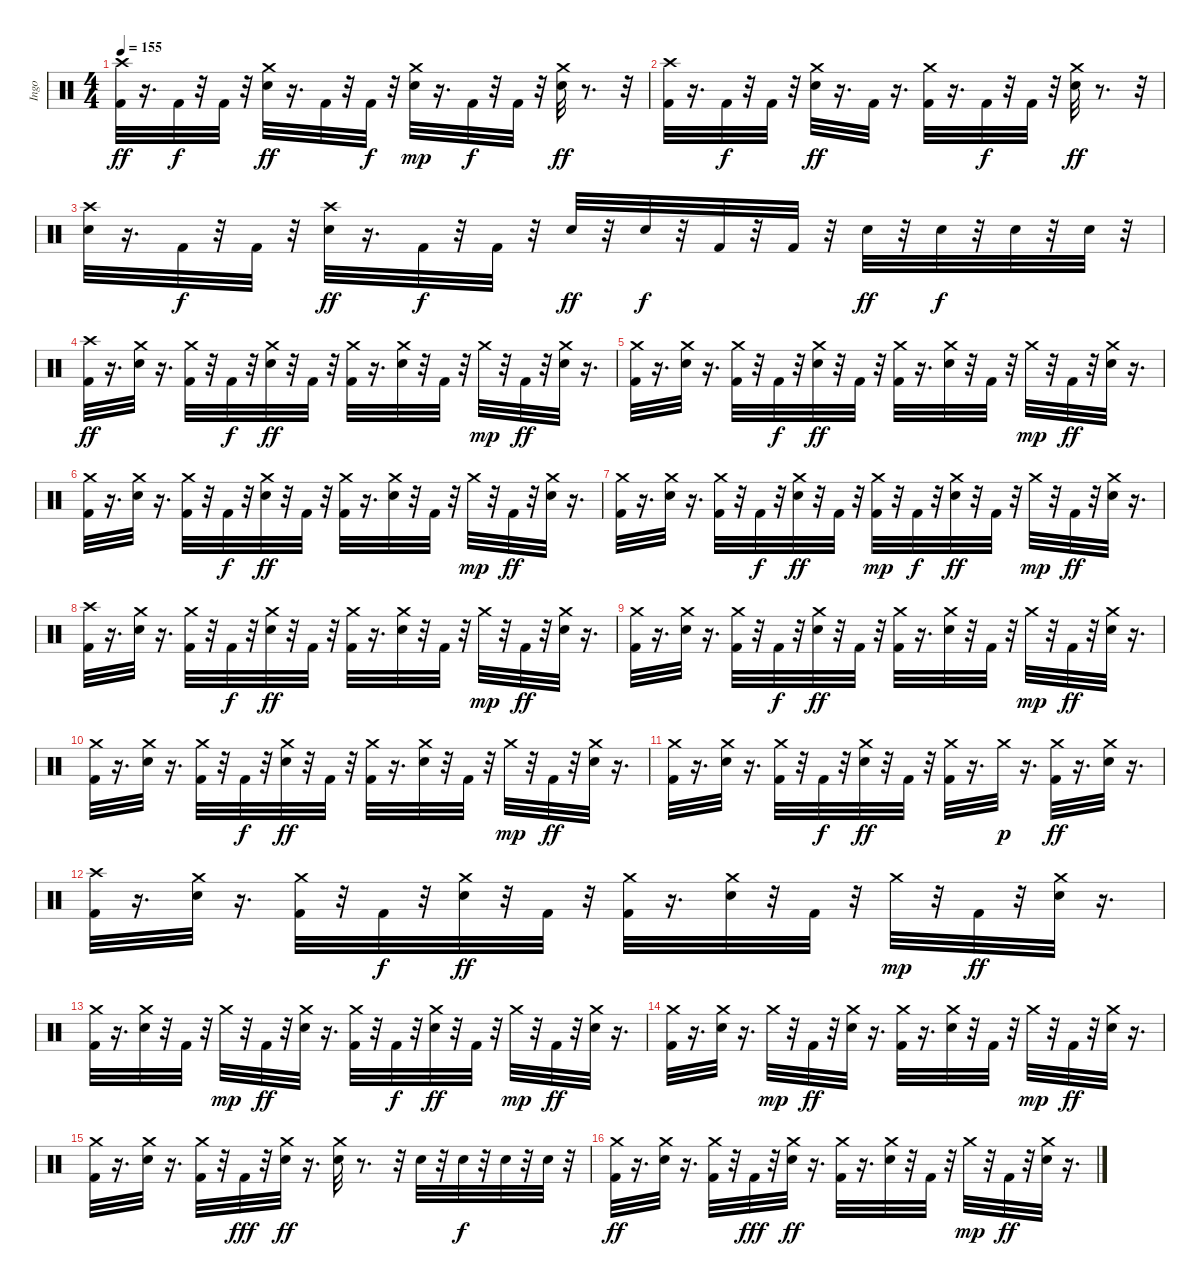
\track ("Ingo" "Ingo") {instrument percussion}
\staff {score}
\articulation defaults
\ts (4 4)
\tempo 155
\clef neutral
\ks c
("Crash high (hit)" "Kick (hit) 2").32{dy ff} r.16{d} "Kick (hit) 2".32{dy f} r.32 "Kick (hit) 2".32 r.32 ("Crash medium (hit)" "Snare (hit) 2").32{dy ff} r.16{d} "Kick (hit) 2".32 r.32 "Kick (hit) 2".32{dy f} r.32 ("Snare (hit) 2" "Crash medium (hit)").32{dy mp} r.16{d} "Kick (hit) 2".32{dy f} r.32 "Kick (hit) 2".32 r.32 ("Crash medium (hit)" "Snare (hit) 2").32{dy ff} r.8{d} r.32 |
("Crash high (hit)" "Kick (hit) 2").32 r.16{d} "Kick (hit) 2".32{dy f} r.32 "Kick (hit) 2".32 r.32 ("Crash medium (hit)" "Snare (hit) 2").32{dy ff} r.16{d} "Kick (hit) 2".32 r.16{d} ("Crash medium (hit)" "Kick (hit) 2").32 r.16{d} "Kick (hit) 2".32{dy f} r.32 "Kick (hit) 2".32 r.32 ("Crash medium (hit)" "Snare (hit) 2").32{dy ff} r.8{d} r.32 |
("Snare (hit) 2" "Crash high (hit)").32 r.16{d} "Kick (hit) 2".32{dy f} r.32 "Kick (hit) 2".32 r.32 ("Snare (hit) 2" "Crash high (hit)").32{dy ff} r.16{d} "Kick (hit) 2".32{dy f} r.32 "Kick (hit) 2".32 r.32 "Snare (hit) 2".32{dy ff} r.32 "Snare (hit) 2".32{dy f} r.32 "Kick (hit) 2".32 r.32 "Kick (hit) 2".32 r.32 "Snare (hit) 2".32{dy ff} r.32 "Snare (hit) 2".32{dy f} r.32 "Snare (hit) 2".32 r.32 "Snare (hit) 2".32 r.32 |
("Crash high (hit)" "Kick (hit) 2").32{dy ff} r.16{d} ("Crash medium (hit)" "Snare (hit) 2").32 r.16{d} ("Crash medium (hit)" "Kick (hit) 2").32 r.32 "Kick (hit) 2".32{dy f} r.32 ("Crash medium (hit)" "Snare (hit) 2").32{dy ff} r.32 "Kick (hit) 2".32 r.32 ("Crash medium (hit)" "Kick (hit) 2").32 r.16{d} ("Crash medium (hit)" "Snare (hit) 2").32 r.32 "Kick (hit) 2".32 r.32 "Crash medium (hit)".32{dy mp} r.32 "Kick (hit) 2".32{dy ff} r.32 ("Crash medium (hit)" "Snare (hit) 2").32 r.16{d} |
("Crash medium (hit)" "Kick (hit) 2").32 r.16{d} ("Crash medium (hit)" "Snare (hit) 2").32 r.16{d} ("Crash medium (hit)" "Kick (hit) 2").32 r.32 "Kick (hit) 2".32{dy f} r.32 ("Crash medium (hit)" "Snare (hit) 2").32{dy ff} r.32 "Kick (hit) 2".32 r.32 ("Crash medium (hit)" "Kick (hit) 2").32 r.16{d} ("Crash medium (hit)" "Snare (hit) 2").32 r.32 "Kick (hit) 2".32 r.32 "Crash medium (hit)".32{dy mp} r.32 "Kick (hit) 2".32{dy ff} r.32 ("Crash medium (hit)" "Snare (hit) 2").32 r.16{d} |
("Crash medium (hit)" "Kick (hit) 2").32 r.16{d} ("Crash medium (hit)" "Snare (hit) 2").32 r.16{d} ("Crash medium (hit)" "Kick (hit) 2").32 r.32 "Kick (hit) 2".32{dy f} r.32 ("Crash medium (hit)" "Snare (hit) 2").32{dy ff} r.32 "Kick (hit) 2".32 r.32 ("Crash medium (hit)" "Kick (hit) 2").32 r.16{d} ("Crash medium (hit)" "Snare (hit) 2").32 r.32 "Kick (hit) 2".32 r.32 "Crash medium (hit)".32{dy mp} r.32 "Kick (hit) 2".32{dy ff} r.32 ("Crash medium (hit)" "Snare (hit) 2").32 r.16{d} |
("Crash medium (hit)" "Kick (hit) 2").32 r.16{d} ("Crash medium (hit)" "Snare (hit) 2").32 r.16{d} ("Crash medium (hit)" "Kick (hit) 2").32 r.32 "Kick (hit) 2".32{dy f} r.32 ("Crash medium (hit)" "Snare (hit) 2").32{dy ff} r.32 "Kick (hit) 2".32 r.32 ("Kick (hit) 2" "Crash medium (hit)").32{dy mp} r.32 "Kick (hit) 2".32{dy f} r.32 ("Crash medium (hit)" "Snare (hit) 2").32{dy ff} r.32 "Kick (hit) 2".32 r.32 "Crash medium (hit)".32{dy mp} r.32 "Kick (hit) 2".32{dy ff} r.32 ("Crash medium (hit)" "Snare (hit) 2").32 r.16{d} |
("Crash high (hit)" "Kick (hit) 2").32 r.16{d} ("Crash medium (hit)" "Snare (hit) 2").32 r.16{d} ("Crash medium (hit)" "Kick (hit) 2").32 r.32 "Kick (hit) 2".32{dy f} r.32 ("Crash medium (hit)" "Snare (hit) 2").32{dy ff} r.32 "Kick (hit) 2".32 r.32 ("Crash medium (hit)" "Kick (hit) 2").32 r.16{d} ("Crash medium (hit)" "Snare (hit) 2").32 r.32 "Kick (hit) 2".32 r.32 "Crash medium (hit)".32{dy mp} r.32 "Kick (hit) 2".32{dy ff} r.32 ("Crash medium (hit)" "Snare (hit) 2").32 r.16{d} |
("Crash medium (hit)" "Kick (hit) 2").32 r.16{d} ("Crash medium (hit)" "Snare (hit) 2").32 r.16{d} ("Crash medium (hit)" "Kick (hit) 2").32 r.32 "Kick (hit) 2".32{dy f} r.32 ("Crash medium (hit)" "Snare (hit) 2").32{dy ff} r.32 "Kick (hit) 2".32 r.32 ("Crash medium (hit)" "Kick (hit) 2").32 r.16{d} ("Crash medium (hit)" "Snare (hit) 2").32 r.32 "Kick (hit) 2".32 r.32 "Crash medium (hit)".32{dy mp} r.32 "Kick (hit) 2".32{dy ff} r.32 ("Crash medium (hit)" "Snare (hit) 2").32 r.16{d} |
("Crash medium (hit)" "Kick (hit) 2").32 r.16{d} ("Crash medium (hit)" "Snare (hit) 2").32 r.16{d} ("Crash medium (hit)" "Kick (hit) 2").32 r.32 "Kick (hit) 2".32{dy f} r.32 ("Crash medium (hit)" "Snare (hit) 2").32{dy ff} r.32 "Kick (hit) 2".32 r.32 ("Crash medium (hit)" "Kick (hit) 2").32 r.16{d} ("Crash medium (hit)" "Snare (hit) 2").32 r.32 "Kick (hit) 2".32 r.32 "Crash medium (hit)".32{dy mp} r.32 "Kick (hit) 2".32{dy ff} r.32 ("Crash medium (hit)" "Snare (hit) 2").32 r.16{d} |
("Crash medium (hit)" "Kick (hit) 2").32 r.16{d} ("Crash medium (hit)" "Snare (hit) 2").32 r.16{d} ("Crash medium (hit)" "Kick (hit) 2").32 r.32 "Kick (hit) 2".32{dy f} r.32 ("Crash medium (hit)" "Snare (hit) 2").32{dy ff} r.32 "Kick (hit) 2".32 r.32 ("Crash medium (hit)" "Kick (hit) 2").32 r.16{d} "Crash medium (hit)".32{dy p} r.16{d} ("Crash medium (hit)" "Kick (hit) 2").32{dy ff} r.16{d} ("Crash medium (hit)" "Snare (hit) 2").32 r.16{d} |
("Crash high (hit)" "Kick (hit) 2").32 r.16{d} ("Crash medium (hit)" "Snare (hit) 2").32 r.16{d} ("Crash medium (hit)" "Kick (hit) 2").32 r.32 "Kick (hit) 2".32{dy f} r.32 ("Crash medium (hit)" "Snare (hit) 2").32{dy ff} r.32 "Kick (hit) 2".32 r.32 ("Crash medium (hit)" "Kick (hit) 2").32 r.16{d} ("Crash medium (hit)" "Snare (hit) 2").32 r.32 "Kick (hit) 2".32 r.32 "Crash medium (hit)".32{dy mp} r.32 "Kick (hit) 2".32{dy ff} r.32 ("Crash medium (hit)" "Snare (hit) 2").32 r.16{d} |
("Crash medium (hit)" "Kick (hit) 2").32 r.16{d} ("Crash medium (hit)" "Snare (hit) 2").32 r.32 "Kick (hit) 2".32 r.32 "Crash medium (hit)".32{dy mp} r.32 "Kick (hit) 2".32{dy ff} r.32 ("Crash medium (hit)" "Snare (hit) 2").32 r.16{d} ("Crash medium (hit)" "Kick (hit) 2").32 r.32 "Kick (hit) 2".32{dy f} r.32 ("Crash medium (hit)" "Snare (hit) 2").32{dy ff} r.32 "Kick (hit) 2".32 r.32 "Crash medium (hit)".32{dy mp} r.32 "Kick (hit) 2".32{dy ff} r.32 ("Crash medium (hit)" "Snare (hit) 2").32 r.16{d} |
("Crash medium (hit)" "Kick (hit) 2").32 r.16{d} ("Crash medium (hit)" "Snare (hit) 2").32 r.16{d} "Crash medium (hit)".32{dy mp} r.32 "Kick (hit) 2".32{dy ff} r.32 ("Crash medium (hit)" "Snare (hit) 2").32 r.16{d} ("Crash medium (hit)" "Kick (hit) 2").32 r.16{d} ("Crash medium (hit)" "Snare (hit) 2").32 r.32 "Kick (hit) 2".32 r.32 "Crash medium (hit)".32{dy mp} r.32 "Kick (hit) 2".32{dy ff} r.32 ("Crash medium (hit)" "Snare (hit) 2").32 r.16{d} |
("Crash medium (hit)" "Kick (hit) 2").32 r.16{d} ("Crash medium (hit)" "Snare (hit) 2").32 r.16{d} ("Crash medium (hit)" "Kick (hit) 2").32 r.32 "Kick (hit) 2".32{dy fff} r.32 ("Crash medium (hit)" "Snare (hit) 2").32{dy ff} r.16{d} ("Crash medium (hit)" "Snare (hit) 2").32 r.8{d} r.32 "Snare (hit) 2".32 r.32 "Snare (hit) 2".32{dy f} r.32 "Snare (hit) 2".32 r.32 "Snare (hit) 2".32 r.32 |
("Crash medium (hit)" "Kick (hit) 2").32{dy ff} r.16{d} ("Crash medium (hit)" "Snare (hit) 2").32 r.16{d} ("Crash medium (hit)" "Kick (hit) 2").32 r.32 "Kick (hit) 2".32{dy fff} r.32 ("Crash medium (hit)" "Snare (hit) 2").32{dy ff} r.16{d} ("Crash medium (hit)" "Kick (hit) 2").32 r.16{d} ("Crash medium (hit)" "Snare (hit) 2").32 r.32 "Kick (hit) 2".32 r.32 "Crash medium (hit)".32{dy mp} r.32 "Kick (hit) 2".32{dy ff} r.32 ("Crash medium (hit)" "Snare (hit) 2").32 r.16{d}
